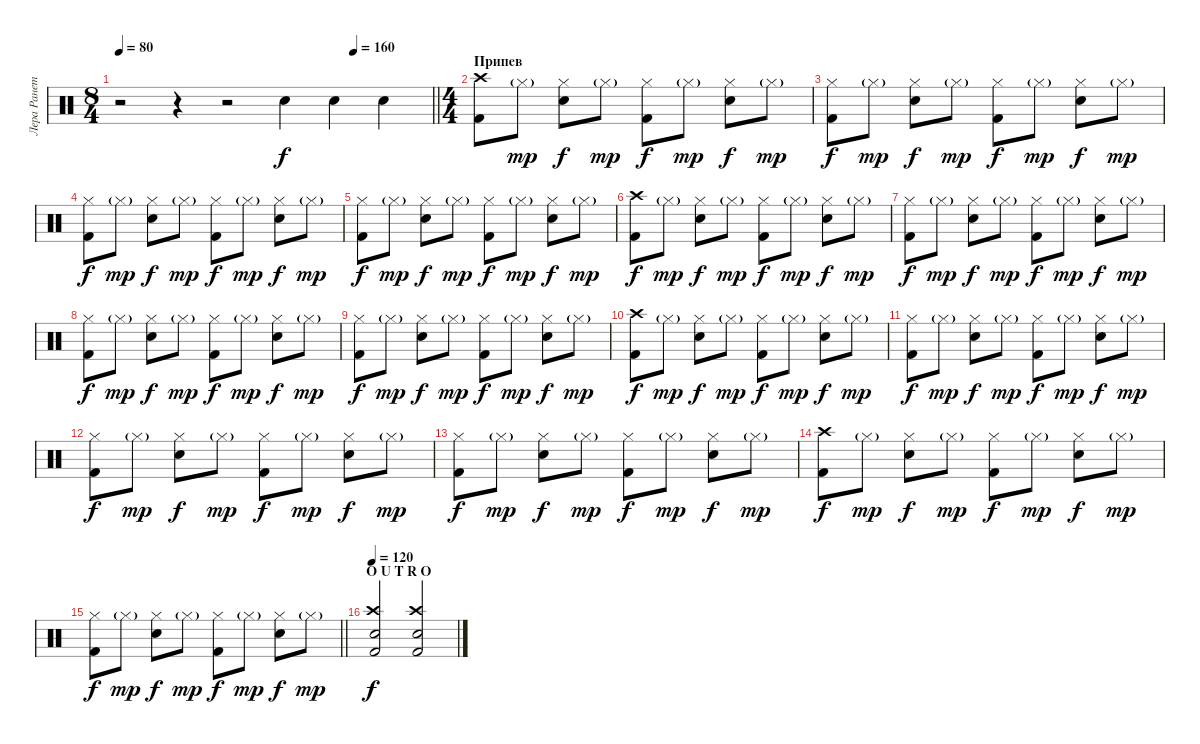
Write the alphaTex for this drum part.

\track ("Лера Ранетка" "Лера Ранет") {instrument percussion}
\staff {score}
\articulation defaults
\ts (8 4)
\tempo 80
\tempo (160 0.75)
\clef neutral
\barLineRight lightlight
\ks c
r.2{dy f} r.4 r.2 "Snare (hit) 2".4 "Snare (hit) 2".4 "Snare (hit) 2".4 |
\ts (4 4)
\section ("" "Припев")
("Crash high (hit)" "Kick (hit) 2").8 "Hi-Hat (closed)"{g}.8{dy mp} ("Hi-Hat (closed)" "Snare (hit) 2").8{dy f} "Hi-Hat (closed)"{g}.8{dy mp} ("Hi-Hat (closed)" "Kick (hit) 2").8{dy f} "Hi-Hat (closed)"{g}.8{dy mp} ("Hi-Hat (closed)" "Snare (hit) 2").8{dy f} "Hi-Hat (closed)"{g}.8{dy mp} |
("Hi-Hat (closed)" "Kick (hit) 2").8{dy f} "Hi-Hat (closed)"{g}.8{dy mp} ("Hi-Hat (closed)" "Snare (hit) 2").8{dy f} "Hi-Hat (closed)"{g}.8{dy mp} ("Hi-Hat (closed)" "Kick (hit) 2").8{dy f} "Hi-Hat (closed)"{g}.8{dy mp} ("Hi-Hat (closed)" "Snare (hit) 2").8{dy f} "Hi-Hat (closed)"{g}.8{dy mp} |
("Hi-Hat (closed)" "Kick (hit) 2").8{dy f} "Hi-Hat (closed)"{g}.8{dy mp} ("Hi-Hat (closed)" "Snare (hit) 2").8{dy f} "Hi-Hat (closed)"{g}.8{dy mp} ("Hi-Hat (closed)" "Kick (hit) 2").8{dy f} "Hi-Hat (closed)"{g}.8{dy mp} ("Hi-Hat (closed)" "Snare (hit) 2").8{dy f} "Hi-Hat (closed)"{g}.8{dy mp} |
("Hi-Hat (closed)" "Kick (hit) 2").8{dy f} "Hi-Hat (closed)"{g}.8{dy mp} ("Hi-Hat (closed)" "Snare (hit) 2").8{dy f} "Hi-Hat (closed)"{g}.8{dy mp} ("Hi-Hat (closed)" "Kick (hit) 2").8{dy f} "Hi-Hat (closed)"{g}.8{dy mp} ("Hi-Hat (closed)" "Snare (hit) 2").8{dy f} "Hi-Hat (closed)"{g}.8{dy mp} |
("Crash high (hit)" "Kick (hit) 2").8{dy f} "Hi-Hat (closed)"{g}.8{dy mp} ("Hi-Hat (closed)" "Snare (hit) 2").8{dy f} "Hi-Hat (closed)"{g}.8{dy mp} ("Hi-Hat (closed)" "Kick (hit) 2").8{dy f} "Hi-Hat (closed)"{g}.8{dy mp} ("Hi-Hat (closed)" "Snare (hit) 2").8{dy f} "Hi-Hat (closed)"{g}.8{dy mp} |
("Hi-Hat (closed)" "Kick (hit) 2").8{dy f} "Hi-Hat (closed)"{g}.8{dy mp} ("Hi-Hat (closed)" "Snare (hit) 2").8{dy f} "Hi-Hat (closed)"{g}.8{dy mp} ("Hi-Hat (closed)" "Kick (hit) 2").8{dy f} "Hi-Hat (closed)"{g}.8{dy mp} ("Hi-Hat (closed)" "Snare (hit) 2").8{dy f} "Hi-Hat (closed)"{g}.8{dy mp} |
("Hi-Hat (closed)" "Kick (hit) 2").8{dy f} "Hi-Hat (closed)"{g}.8{dy mp} ("Hi-Hat (closed)" "Snare (hit) 2").8{dy f} "Hi-Hat (closed)"{g}.8{dy mp} ("Hi-Hat (closed)" "Kick (hit) 2").8{dy f} "Hi-Hat (closed)"{g}.8{dy mp} ("Hi-Hat (closed)" "Snare (hit) 2").8{dy f} "Hi-Hat (closed)"{g}.8{dy mp} |
("Hi-Hat (closed)" "Kick (hit) 2").8{dy f} "Hi-Hat (closed)"{g}.8{dy mp} ("Hi-Hat (closed)" "Snare (hit) 2").8{dy f} "Hi-Hat (closed)"{g}.8{dy mp} ("Hi-Hat (closed)" "Kick (hit) 2").8{dy f} "Hi-Hat (closed)"{g}.8{dy mp} ("Hi-Hat (closed)" "Snare (hit) 2").8{dy f} "Hi-Hat (closed)"{g}.8{dy mp} |
("Crash high (hit)" "Kick (hit) 2").8{dy f} "Hi-Hat (closed)"{g}.8{dy mp} ("Hi-Hat (closed)" "Snare (hit) 2").8{dy f} "Hi-Hat (closed)"{g}.8{dy mp} ("Hi-Hat (closed)" "Kick (hit) 2").8{dy f} "Hi-Hat (closed)"{g}.8{dy mp} ("Hi-Hat (closed)" "Snare (hit) 2").8{dy f} "Hi-Hat (closed)"{g}.8{dy mp} |
("Hi-Hat (closed)" "Kick (hit) 2").8{dy f} "Hi-Hat (closed)"{g}.8{dy mp} ("Hi-Hat (closed)" "Snare (hit) 2").8{dy f} "Hi-Hat (closed)"{g}.8{dy mp} ("Hi-Hat (closed)" "Kick (hit) 2").8{dy f} "Hi-Hat (closed)"{g}.8{dy mp} ("Hi-Hat (closed)" "Snare (hit) 2").8{dy f} "Hi-Hat (closed)"{g}.8{dy mp} |
("Hi-Hat (closed)" "Kick (hit) 2").8{dy f} "Hi-Hat (closed)"{g}.8{dy mp} ("Hi-Hat (closed)" "Snare (hit) 2").8{dy f} "Hi-Hat (closed)"{g}.8{dy mp} ("Hi-Hat (closed)" "Kick (hit) 2").8{dy f} "Hi-Hat (closed)"{g}.8{dy mp} ("Hi-Hat (closed)" "Snare (hit) 2").8{dy f} "Hi-Hat (closed)"{g}.8{dy mp} |
("Hi-Hat (closed)" "Kick (hit) 2").8{dy f} "Hi-Hat (closed)"{g}.8{dy mp} ("Hi-Hat (closed)" "Snare (hit) 2").8{dy f} "Hi-Hat (closed)"{g}.8{dy mp} ("Hi-Hat (closed)" "Kick (hit) 2").8{dy f} "Hi-Hat (closed)"{g}.8{dy mp} ("Hi-Hat (closed)" "Snare (hit) 2").8{dy f} "Hi-Hat (closed)"{g}.8{dy mp} |
("Crash high (hit)" "Kick (hit) 2").8{dy f} "Hi-Hat (closed)"{g}.8{dy mp} ("Hi-Hat (closed)" "Snare (hit) 2").8{dy f} "Hi-Hat (closed)"{g}.8{dy mp} ("Hi-Hat (closed)" "Kick (hit) 2").8{dy f} "Hi-Hat (closed)"{g}.8{dy mp} ("Hi-Hat (closed)" "Snare (hit) 2").8{dy f} "Hi-Hat (closed)"{g}.8{dy mp} |
\barLineRight lightlight
("Hi-Hat (closed)" "Kick (hit) 2").8{dy f} "Hi-Hat (closed)"{g}.8{dy mp} ("Hi-Hat (closed)" "Snare (hit) 2").8{dy f} "Hi-Hat (closed)"{g}.8{dy mp} ("Hi-Hat (closed)" "Kick (hit) 2").8{dy f} "Hi-Hat (closed)"{g}.8{dy mp} ("Hi-Hat (closed)" "Snare (hit) 2").8{dy f} "Hi-Hat (closed)"{g}.8{dy mp} |
\section ("" "O U T R O")
\tempo 120
("Crash high (hit)" "Snare (hit) 2" "Kick (hit) 2").2{dy f} ("Crash high (hit)" "Snare (hit) 2" "Kick (hit) 2").2
